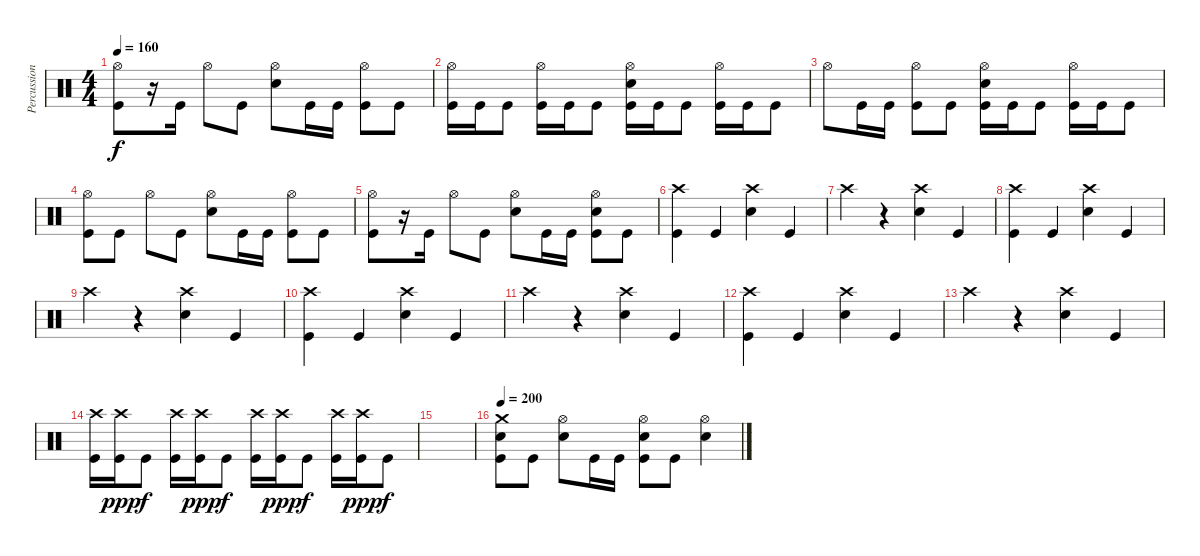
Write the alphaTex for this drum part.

\track ("Percussion" "Percussion") {instrument percussion}
\staff {score}
\articulation defaults
\ts (4 4)
\tempo 160
\clef neutral
\ks c
("Hi-Hat (open)" "Kick (hit)").8{dy f} r.16 "Kick (hit)".16 "Hi-Hat (open)".8 "Kick (hit)".8 ("Hi-Hat (open)" "Snare (hit) 2").8 "Kick (hit)".16 "Kick (hit)".16 ("Hi-Hat (open)" "Kick (hit)").8 "Kick (hit)".8 |
("Hi-Hat (open)" "Kick (hit)").16 "Kick (hit)".16 "Kick (hit)".8 ("Hi-Hat (open)" "Kick (hit)").16 "Kick (hit)".16 "Kick (hit)".8 ("Hi-Hat (open)" "Snare (hit) 2" "Kick (hit)").16 "Kick (hit)".16 "Kick (hit)".8 ("Hi-Hat (open)" "Kick (hit)").16 "Kick (hit)".16 "Kick (hit)".8 |
"Hi-Hat (open)".8 "Kick (hit)".16 "Kick (hit)".16 ("Hi-Hat (open)" "Kick (hit)").8 "Kick (hit)".8 ("Hi-Hat (open)" "Snare (hit) 2" "Kick (hit)").16 "Kick (hit)".16 "Kick (hit)".8 ("Hi-Hat (open)" "Kick (hit)").16 "Kick (hit)".16 "Kick (hit)".8 |
("Hi-Hat (open)" "Kick (hit)").8 "Kick (hit)".8 "Hi-Hat (open)".8 "Kick (hit)".8 ("Hi-Hat (open)" "Snare (hit) 2").8 "Kick (hit)".16 "Kick (hit)".16 ("Hi-Hat (open)" "Kick (hit)").8 "Kick (hit)".8 |
("Hi-Hat (open)" "Kick (hit)").8 r.16 "Kick (hit)".16 "Hi-Hat (open)".8 "Kick (hit)".8 ("Hi-Hat (open)" "Snare (hit) 2").8 "Kick (hit)".16 "Kick (hit)".16 ("Hi-Hat (open)" "Snare (hit) 2" "Kick (hit)").8 "Kick (hit)".8 |
("Crash high (hit)" "Kick (hit)").4 "Kick (hit)".4 ("Crash high (hit)" "Snare (hit) 2").4 "Kick (hit)".4 |
"Crash high (hit)".4 r.4 ("Crash high (hit)" "Snare (hit) 2").4 "Kick (hit)".4 |
("Crash high (hit)" "Kick (hit)").4 "Kick (hit)".4 ("Crash high (hit)" "Snare (hit) 2").4 "Kick (hit)".4 |
"Crash high (hit)".4 r.4 ("Crash high (hit)" "Snare (hit) 2").4 "Kick (hit)".4 |
("Crash high (hit)" "Kick (hit)").4 "Kick (hit)".4 ("Crash high (hit)" "Snare (hit) 2").4 "Kick (hit)".4 |
"Crash high (hit)".4 r.4 ("Crash high (hit)" "Snare (hit) 2").4 "Kick (hit)".4 |
("Crash high (hit)" "Kick (hit)").4 "Kick (hit)".4 ("Crash high (hit)" "Snare (hit) 2").4 "Kick (hit)".4 |
"Crash high (hit)".4 r.4 ("Crash high (hit)" "Snare (hit) 2").4 "Kick (hit)".4 |
("Crash high (hit)" "Kick (hit)").16 ("Crash high (hit)" "Kick (hit)").16{dy ppp} "Kick (hit)".8{dy f} ("Crash high (hit)" "Kick (hit)").16 ("Crash high (hit)" "Kick (hit)").16{dy ppp} "Kick (hit)".8{dy f} ("Crash high (hit)" "Kick (hit)").16 ("Crash high (hit)" "Kick (hit)").16{dy ppp} "Kick (hit)".8{dy f} ("Crash high (hit)" "Kick (hit)").16 ("Crash high (hit)" "Kick (hit)").16{dy ppp} "Kick (hit)".8{dy f} |
|
\tempo 200
("Crash medium (hit)" "Snare (hit) 2" "Kick (hit)").8 "Kick (hit)".8 ("Hi-Hat (open)" "Snare (hit) 2").8 "Kick (hit)".16 "Kick (hit)".16 ("Hi-Hat (open)" "Snare (hit) 2" "Kick (hit)").8 "Kick (hit)".8 ("Hi-Hat (open)" "Snare (hit) 2").4
